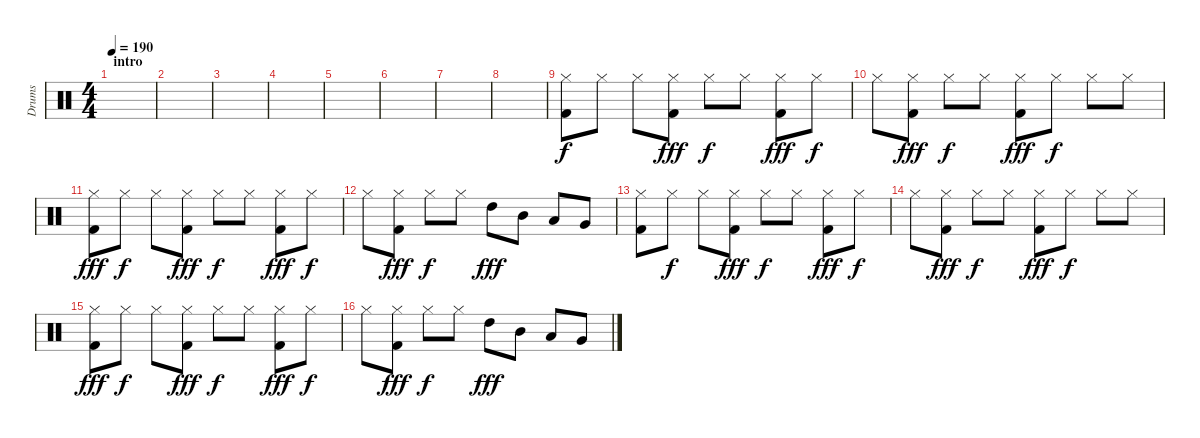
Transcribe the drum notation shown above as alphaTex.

\track ("Drums" "Drums") {instrument percussion}
\staff {score}
\articulation defaults
\ts (4 4)
\section ("" "intro")
\tempo 190
\clef neutral
\ks c
|
|
|
|
|
|
|
|
("Hi-Hat (closed)" "Kick (hit) 2").8 "Hi-Hat (closed)".8{dy f} "Hi-Hat (closed)".8 ("Hi-Hat (closed)" "Kick (hit) 2").8{dy fff} "Hi-Hat (closed)".8{dy f} "Hi-Hat (closed)".8 ("Hi-Hat (closed)" "Kick (hit) 2").8{dy fff} "Hi-Hat (closed)".8{dy f} |
"Hi-Hat (closed)".8 ("Hi-Hat (closed)" "Kick (hit) 2").8{dy fff} "Hi-Hat (closed)".8{dy f} "Hi-Hat (closed)".8 ("Hi-Hat (closed)" "Kick (hit) 2").8{dy fff} "Hi-Hat (closed)".8{dy f} "Hi-Hat (closed)".8 "Hi-Hat (closed)".8 |
("Hi-Hat (closed)" "Kick (hit) 2").8{dy fff} "Hi-Hat (closed)".8{dy f} "Hi-Hat (closed)".8 ("Hi-Hat (closed)" "Kick (hit) 2").8{dy fff} "Hi-Hat (closed)".8{dy f} "Hi-Hat (closed)".8 ("Hi-Hat (closed)" "Kick (hit) 2").8{dy fff} "Hi-Hat (closed)".8{dy f} |
"Hi-Hat (closed)".8 ("Hi-Hat (closed)" "Kick (hit) 2").8{dy fff} "Hi-Hat (closed)".8{dy f} "Hi-Hat (closed)".8 "High Tom (hit)".8{dy fff} "Mid Tom (hit)".8 "Low Tom (hit)".8 "Very Low Tom (hit)".8 |
("Hi-Hat (closed)" "Kick (hit) 2").8 "Hi-Hat (closed)".8{dy f} "Hi-Hat (closed)".8 ("Hi-Hat (closed)" "Kick (hit) 2").8{dy fff} "Hi-Hat (closed)".8{dy f} "Hi-Hat (closed)".8 ("Hi-Hat (closed)" "Kick (hit) 2").8{dy fff} "Hi-Hat (closed)".8{dy f} |
"Hi-Hat (closed)".8 ("Hi-Hat (closed)" "Kick (hit) 2").8{dy fff} "Hi-Hat (closed)".8{dy f} "Hi-Hat (closed)".8 ("Hi-Hat (closed)" "Kick (hit) 2").8{dy fff} "Hi-Hat (closed)".8{dy f} "Hi-Hat (closed)".8 "Hi-Hat (closed)".8 |
("Hi-Hat (closed)" "Kick (hit) 2").8{dy fff} "Hi-Hat (closed)".8{dy f} "Hi-Hat (closed)".8 ("Hi-Hat (closed)" "Kick (hit) 2").8{dy fff} "Hi-Hat (closed)".8{dy f} "Hi-Hat (closed)".8 ("Hi-Hat (closed)" "Kick (hit) 2").8{dy fff} "Hi-Hat (closed)".8{dy f} |
"Hi-Hat (closed)".8 ("Hi-Hat (closed)" "Kick (hit) 2").8{dy fff} "Hi-Hat (closed)".8{dy f} "Hi-Hat (closed)".8 "High Tom (hit)".8{dy fff} "Mid Tom (hit)".8 "Low Tom (hit)".8 "Very Low Tom (hit)".8
